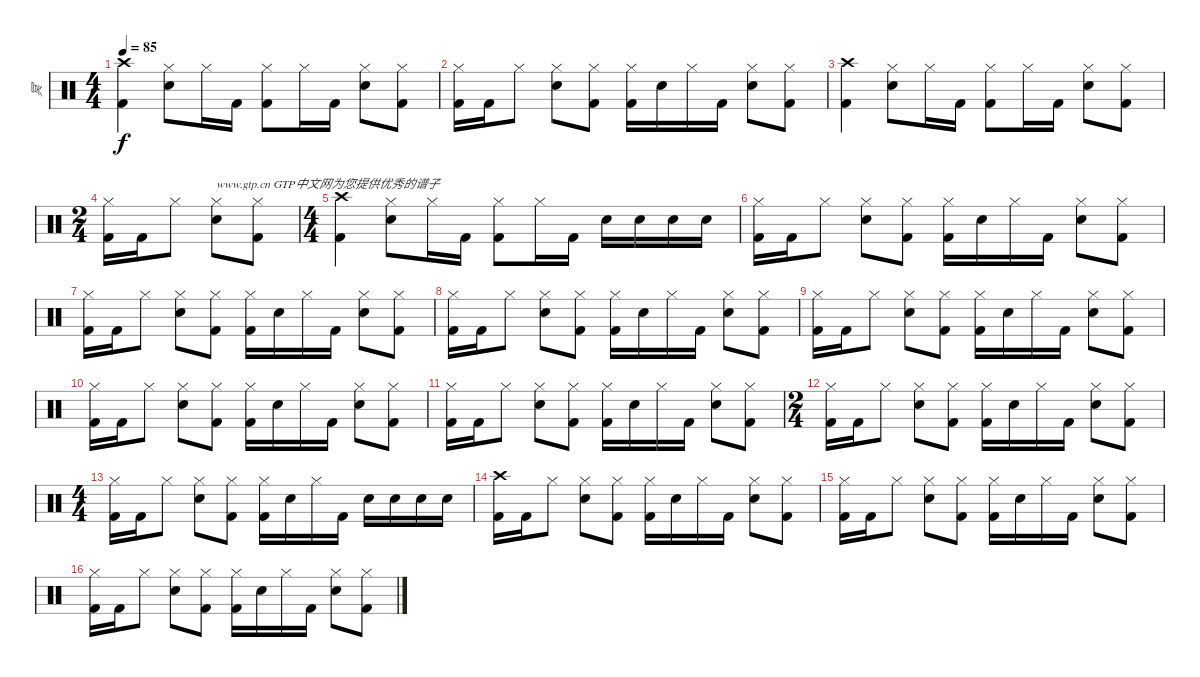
\track ("冥" "冥") {instrument percussion}
\staff {score}
\articulation defaults
\ts (4 4)
\tempo 85
\clef neutral
\ks c
("Crash high (hit)" "Kick (hit) 2").4{dy f} ("Hi-Hat (closed)" "Snare (hit) 2").8 "Hi-Hat (closed)".16 "Kick (hit) 2".16 ("Hi-Hat (closed)" "Kick (hit) 2").8 "Hi-Hat (closed)".16 "Kick (hit) 2".16 ("Hi-Hat (closed)" "Snare (hit) 2").8 ("Hi-Hat (closed)" "Kick (hit) 2").8 |
("Hi-Hat (closed)" "Kick (hit) 2").16 "Kick (hit) 2".16 "Hi-Hat (closed)".8 ("Hi-Hat (closed)" "Snare (hit) 2").8 ("Hi-Hat (closed)" "Kick (hit) 2").8 ("Hi-Hat (closed)" "Kick (hit) 2").16 "Snare (hit) 2".16 "Hi-Hat (closed)".16 "Kick (hit) 2".16 ("Hi-Hat (closed)" "Snare (hit) 2").8 ("Hi-Hat (closed)" "Kick (hit) 2").8 |
("Crash high (hit)" "Kick (hit) 2").4 ("Hi-Hat (closed)" "Snare (hit) 2").8 "Hi-Hat (closed)".16 "Kick (hit) 2".16 ("Hi-Hat (closed)" "Kick (hit) 2").8 "Hi-Hat (closed)".16 "Kick (hit) 2".16 ("Hi-Hat (closed)" "Snare (hit) 2").8 ("Hi-Hat (closed)" "Kick (hit) 2").8 |
\ts (2 4)
("Hi-Hat (closed)" "Kick (hit) 2").16 "Kick (hit) 2".16 "Hi-Hat (closed)".8 ("Hi-Hat (closed)" "Snare (hit) 2").8{txt "www.gtp.cn GTP中文网为您提供优秀的谱子"} ("Hi-Hat (closed)" "Kick (hit) 2").8 |
\ts (4 4)
("Crash high (hit)" "Kick (hit) 2").4 ("Hi-Hat (closed)" "Snare (hit) 2").8 "Hi-Hat (closed)".16 "Kick (hit) 2".16 ("Hi-Hat (closed)" "Kick (hit) 2").8 "Hi-Hat (closed)".16 "Kick (hit) 2".16 "Snare (hit) 2".16 "Snare (hit) 2".16 "Snare (hit) 2".16 "Snare (hit) 2".16 |
("Hi-Hat (closed)" "Kick (hit) 2").16 "Kick (hit) 2".16 "Hi-Hat (closed)".8 ("Hi-Hat (closed)" "Snare (hit) 2").8 ("Hi-Hat (closed)" "Kick (hit) 2").8 ("Hi-Hat (closed)" "Kick (hit) 2").16 "Snare (hit) 2".16 "Hi-Hat (closed)".16 "Kick (hit) 2".16 ("Hi-Hat (closed)" "Snare (hit) 2").8 ("Hi-Hat (closed)" "Kick (hit) 2").8 |
("Hi-Hat (closed)" "Kick (hit) 2").16 "Kick (hit) 2".16 "Hi-Hat (closed)".8 ("Hi-Hat (closed)" "Snare (hit) 2").8 ("Hi-Hat (closed)" "Kick (hit) 2").8 ("Hi-Hat (closed)" "Kick (hit) 2").16 "Snare (hit) 2".16 "Hi-Hat (closed)".16 "Kick (hit) 2".16 ("Hi-Hat (closed)" "Snare (hit) 2").8 ("Hi-Hat (closed)" "Kick (hit) 2").8 |
("Hi-Hat (closed)" "Kick (hit) 2").16 "Kick (hit) 2".16 "Hi-Hat (closed)".8 ("Hi-Hat (closed)" "Snare (hit) 2").8 ("Hi-Hat (closed)" "Kick (hit) 2").8 ("Hi-Hat (closed)" "Kick (hit) 2").16 "Snare (hit) 2".16 "Hi-Hat (closed)".16 "Kick (hit) 2".16 ("Hi-Hat (closed)" "Snare (hit) 2").8 ("Hi-Hat (closed)" "Kick (hit) 2").8 |
("Hi-Hat (closed)" "Kick (hit) 2").16 "Kick (hit) 2".16 "Hi-Hat (closed)".8 ("Hi-Hat (closed)" "Snare (hit) 2").8 ("Hi-Hat (closed)" "Kick (hit) 2").8 ("Hi-Hat (closed)" "Kick (hit) 2").16 "Snare (hit) 2".16 "Hi-Hat (closed)".16 "Kick (hit) 2".16 ("Hi-Hat (closed)" "Snare (hit) 2").8 ("Hi-Hat (closed)" "Kick (hit) 2").8 |
("Hi-Hat (closed)" "Kick (hit) 2").16 "Kick (hit) 2".16 "Hi-Hat (closed)".8 ("Hi-Hat (closed)" "Snare (hit) 2").8 ("Hi-Hat (closed)" "Kick (hit) 2").8 ("Hi-Hat (closed)" "Kick (hit) 2").16 "Snare (hit) 2".16 "Hi-Hat (closed)".16 "Kick (hit) 2".16 ("Hi-Hat (closed)" "Snare (hit) 2").8 ("Hi-Hat (closed)" "Kick (hit) 2").8 |
("Hi-Hat (closed)" "Kick (hit) 2").16 "Kick (hit) 2".16 "Hi-Hat (closed)".8 ("Hi-Hat (closed)" "Snare (hit) 2").8 ("Hi-Hat (closed)" "Kick (hit) 2").8 ("Hi-Hat (closed)" "Kick (hit) 2").16 "Snare (hit) 2".16 "Hi-Hat (closed)".16 "Kick (hit) 2".16 ("Hi-Hat (closed)" "Snare (hit) 2").8 ("Hi-Hat (closed)" "Kick (hit) 2").8 |
\ts (2 4)
("Hi-Hat (closed)" "Kick (hit) 2").16 "Kick (hit) 2".16 "Hi-Hat (closed)".8 ("Hi-Hat (closed)" "Snare (hit) 2").8 ("Hi-Hat (closed)" "Kick (hit) 2").8 ("Hi-Hat (closed)" "Kick (hit) 2").16 "Snare (hit) 2".16 "Hi-Hat (closed)".16 "Kick (hit) 2".16 ("Hi-Hat (closed)" "Snare (hit) 2").8 ("Hi-Hat (closed)" "Kick (hit) 2").8 |
\ts (4 4)
("Hi-Hat (closed)" "Kick (hit) 2").16 "Kick (hit) 2".16 "Hi-Hat (closed)".8 ("Hi-Hat (closed)" "Snare (hit) 2").8 ("Hi-Hat (closed)" "Kick (hit) 2").8 ("Hi-Hat (closed)" "Kick (hit) 2").16 "Snare (hit) 2".16 "Hi-Hat (closed)".16 "Kick (hit) 2".16 "Snare (hit) 2".16 "Snare (hit) 2".16 "Snare (hit) 2".16 "Snare (hit) 2".16 |
("Crash high (hit)" "Kick (hit) 2").16 "Kick (hit) 2".16 "Hi-Hat (closed)".8 ("Hi-Hat (closed)" "Snare (hit) 2").8 ("Hi-Hat (closed)" "Kick (hit) 2").8 ("Hi-Hat (closed)" "Kick (hit) 2").16 "Snare (hit) 2".16 "Hi-Hat (closed)".16 "Kick (hit) 2".16 ("Hi-Hat (closed)" "Snare (hit) 2").8 ("Hi-Hat (closed)" "Kick (hit) 2").8 |
("Hi-Hat (closed)" "Kick (hit) 2").16 "Kick (hit) 2".16 "Hi-Hat (closed)".8 ("Hi-Hat (closed)" "Snare (hit) 2").8 ("Hi-Hat (closed)" "Kick (hit) 2").8 ("Hi-Hat (closed)" "Kick (hit) 2").16 "Snare (hit) 2".16 "Hi-Hat (closed)".16 "Kick (hit) 2".16 ("Hi-Hat (closed)" "Snare (hit) 2").8 ("Hi-Hat (closed)" "Kick (hit) 2").8 |
("Hi-Hat (closed)" "Kick (hit) 2").16 "Kick (hit) 2".16 "Hi-Hat (closed)".8 ("Hi-Hat (closed)" "Snare (hit) 2").8 ("Hi-Hat (closed)" "Kick (hit) 2").8 ("Hi-Hat (closed)" "Kick (hit) 2").16 "Snare (hit) 2".16 "Hi-Hat (closed)".16 "Kick (hit) 2".16 ("Hi-Hat (closed)" "Snare (hit) 2").8 ("Hi-Hat (closed)" "Kick (hit) 2").8
